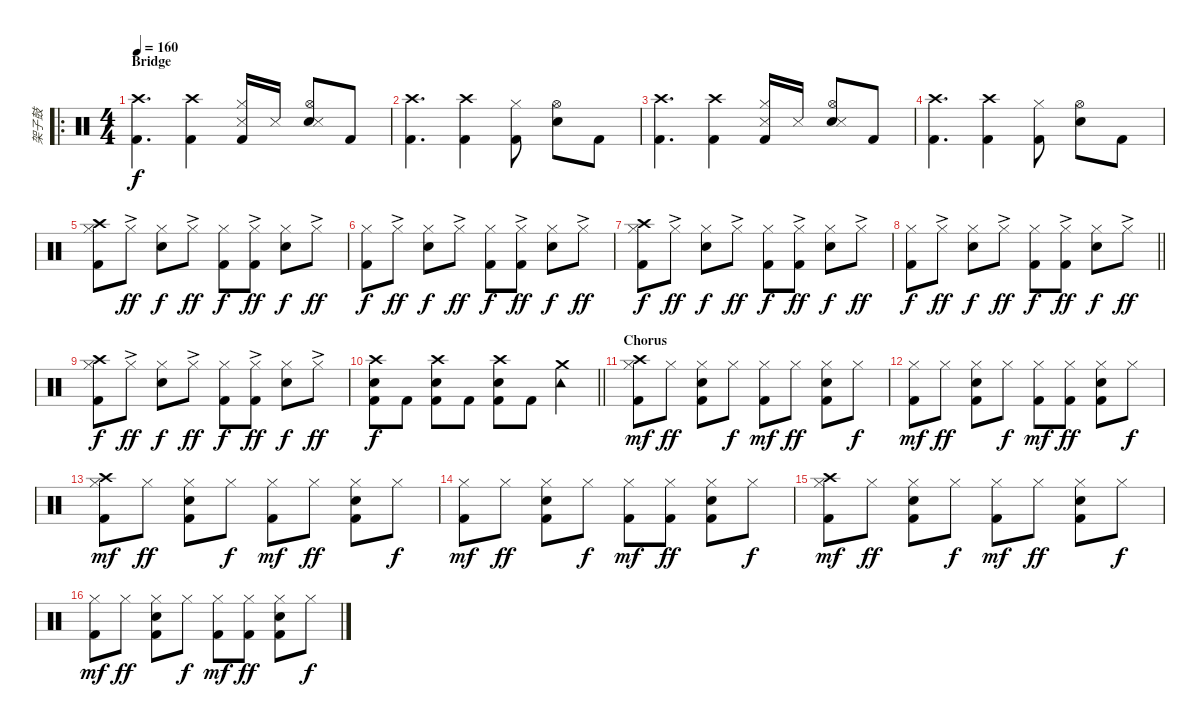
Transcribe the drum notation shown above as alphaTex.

\track ("架子鼓" "架子鼓") {instrument percussion}
\staff {score}
\articulation defaults
\ro
\ts (4 4)
\section ("" "Bridge")
\tempo 160
\clef neutral
\ks c
("Crash high (hit)" "Kick (hit) 2").4{d dy f} ("Crash high (hit)" "Kick (hit) 2").4 ("Hi-Hat (closed)" "Metronome (hit)" "Kick (hit) 2").16 "Metronome (hit)".16 ("Hi-Hat (open)" "Electric Snare (hit)" "Metronome (hit)").8 "Kick (hit) 2".8 |
("Crash high (hit)" "Kick (hit) 2").4{d} ("Crash high (hit)" "Kick (hit) 2").4 ("Hi-Hat (closed)" "Kick (hit) 2").8 ("Hi-Hat (open)" "Electric Snare (hit)").8 "Kick (hit) 2".8 |
("Crash high (hit)" "Kick (hit) 2").4{d} ("Crash high (hit)" "Kick (hit) 2").4 ("Hi-Hat (closed)" "Metronome (hit)" "Kick (hit) 2").16 "Metronome (hit)".16 ("Hi-Hat (open)" "Electric Snare (hit)" "Metronome (hit)").8 "Kick (hit) 2".8 |
("Crash high (hit)" "Kick (hit) 2").4{d} ("Crash high (hit)" "Kick (hit) 2").4 ("Hi-Hat (closed)" "Kick (hit) 2").8 ("Hi-Hat (open)" "Electric Snare (hit)").8 "Kick (hit) 2".8 |
("Hi-Hat (closed)" "Crash high (hit)" "Kick (hit) 2").8 "Hi-Hat (closed)"{ac}.8{dy ff} ("Hi-Hat (closed)" "Electric Snare (hit)").8{dy f} "Hi-Hat (closed)"{ac}.8{dy ff} ("Hi-Hat (closed)" "Kick (hit) 2").8{dy f} ("Hi-Hat (closed)"{ac} "Kick (hit) 2").8{dy ff} ("Hi-Hat (closed)" "Electric Snare (hit)").8{dy f} "Hi-Hat (closed)"{ac}.8{dy ff} |
("Hi-Hat (closed)" "Kick (hit) 2").8{dy f} "Hi-Hat (closed)"{ac}.8{dy ff} ("Hi-Hat (closed)" "Electric Snare (hit)").8{dy f} "Hi-Hat (closed)"{ac}.8{dy ff} ("Hi-Hat (closed)" "Kick (hit) 2").8{dy f} ("Hi-Hat (closed)"{ac} "Kick (hit) 2").8{dy ff} ("Hi-Hat (closed)" "Electric Snare (hit)").8{dy f} "Hi-Hat (closed)"{ac}.8{dy ff} |
("Hi-Hat (closed)" "Crash high (hit)" "Kick (hit) 2").8{dy f} "Hi-Hat (closed)"{ac}.8{dy ff} ("Hi-Hat (closed)" "Electric Snare (hit)").8{dy f} "Hi-Hat (closed)"{ac}.8{dy ff} ("Hi-Hat (closed)" "Kick (hit) 2").8{dy f} ("Hi-Hat (closed)"{ac} "Kick (hit) 2").8{dy ff} ("Hi-Hat (closed)" "Electric Snare (hit)").8{dy f} "Hi-Hat (closed)"{ac}.8{dy ff} |
\barLineRight lightlight
("Hi-Hat (closed)" "Kick (hit) 2").8{dy f} "Hi-Hat (closed)"{ac}.8{dy ff} ("Hi-Hat (closed)" "Electric Snare (hit)").8{dy f} "Hi-Hat (closed)"{ac}.8{dy ff} ("Hi-Hat (closed)" "Kick (hit) 2").8{dy f} ("Hi-Hat (closed)"{ac} "Kick (hit) 2").8{dy ff} ("Hi-Hat (closed)" "Electric Snare (hit)").8{dy f} "Hi-Hat (closed)"{ac}.8{dy ff} |
("Hi-Hat (closed)" "Crash high (hit)" "Kick (hit) 2").8{dy f} "Hi-Hat (closed)"{ac}.8{dy ff} ("Hi-Hat (closed)" "Electric Snare (hit)").8{dy f} "Hi-Hat (closed)"{ac}.8{dy ff} ("Hi-Hat (closed)" "Kick (hit) 2").8{dy f} ("Hi-Hat (closed)"{ac} "Kick (hit) 2").8{dy ff} ("Hi-Hat (closed)" "Electric Snare (hit)").8{dy f} "Hi-Hat (closed)"{ac}.8{dy ff} |
\barLineRight lightlight
("Crash high (hit)" "Electric Snare (hit)" "Kick (hit) 2").8{dy f} "Kick (hit) 2".8 ("Crash high (hit)" "Electric Snare (hit)" "Kick (hit) 2").8 "Kick (hit) 2".8 ("Crash high (hit)" "Electric Snare (hit)" "Kick (hit) 2").8 "Kick (hit) 2".8 ("Crash medium (hit)" "Tambourine (hit)").4 |
\section ("" "Chorus")
("Hi-Hat (closed)" "Crash high (hit)" "Kick (hit) 2").8{dy mf} "Hi-Hat (closed)".8{dy ff} ("Hi-Hat (closed)" "Electric Snare (hit)" "Kick (hit) 2").8 "Hi-Hat (closed)".8{dy f} ("Hi-Hat (closed)" "Kick (hit) 2").8{dy mf} "Hi-Hat (closed)".8{dy ff} ("Hi-Hat (closed)" "Electric Snare (hit)" "Kick (hit) 2").8 "Hi-Hat (closed)".8{dy f} |
("Hi-Hat (closed)" "Kick (hit) 2").8{dy mf} "Hi-Hat (closed)".8{dy ff} ("Hi-Hat (closed)" "Electric Snare (hit)" "Kick (hit) 2").8 "Hi-Hat (closed)".8{dy f} ("Hi-Hat (closed)" "Kick (hit) 2").8{dy mf} ("Hi-Hat (closed)" "Kick (hit) 2").8{dy ff} ("Hi-Hat (closed)" "Electric Snare (hit)" "Kick (hit) 2").8 "Hi-Hat (closed)".8{dy f} |
("Hi-Hat (closed)" "Crash high (hit)" "Kick (hit) 2").8{dy mf} "Hi-Hat (closed)".8{dy ff} ("Hi-Hat (closed)" "Electric Snare (hit)" "Kick (hit) 2").8 "Hi-Hat (closed)".8{dy f} ("Hi-Hat (closed)" "Kick (hit) 2").8{dy mf} "Hi-Hat (closed)".8{dy ff} ("Hi-Hat (closed)" "Electric Snare (hit)" "Kick (hit) 2").8 "Hi-Hat (closed)".8{dy f} |
("Hi-Hat (closed)" "Kick (hit) 2").8{dy mf} "Hi-Hat (closed)".8{dy ff} ("Hi-Hat (closed)" "Electric Snare (hit)" "Kick (hit) 2").8 "Hi-Hat (closed)".8{dy f} ("Hi-Hat (closed)" "Kick (hit) 2").8{dy mf} ("Hi-Hat (closed)" "Kick (hit) 2").8{dy ff} ("Hi-Hat (closed)" "Electric Snare (hit)" "Kick (hit) 2").8 "Hi-Hat (closed)".8{dy f} |
("Hi-Hat (closed)" "Crash high (hit)" "Kick (hit) 2").8{dy mf} "Hi-Hat (closed)".8{dy ff} ("Hi-Hat (closed)" "Electric Snare (hit)" "Kick (hit) 2").8 "Hi-Hat (closed)".8{dy f} ("Hi-Hat (closed)" "Kick (hit) 2").8{dy mf} "Hi-Hat (closed)".8{dy ff} ("Hi-Hat (closed)" "Electric Snare (hit)" "Kick (hit) 2").8 "Hi-Hat (closed)".8{dy f} |
("Hi-Hat (closed)" "Kick (hit) 2").8{dy mf} "Hi-Hat (closed)".8{dy ff} ("Hi-Hat (closed)" "Electric Snare (hit)" "Kick (hit) 2").8 "Hi-Hat (closed)".8{dy f} ("Hi-Hat (closed)" "Kick (hit) 2").8{dy mf} ("Hi-Hat (closed)" "Kick (hit) 2").8{dy ff} ("Hi-Hat (closed)" "Electric Snare (hit)" "Kick (hit) 2").8 "Hi-Hat (closed)".8{dy f}
